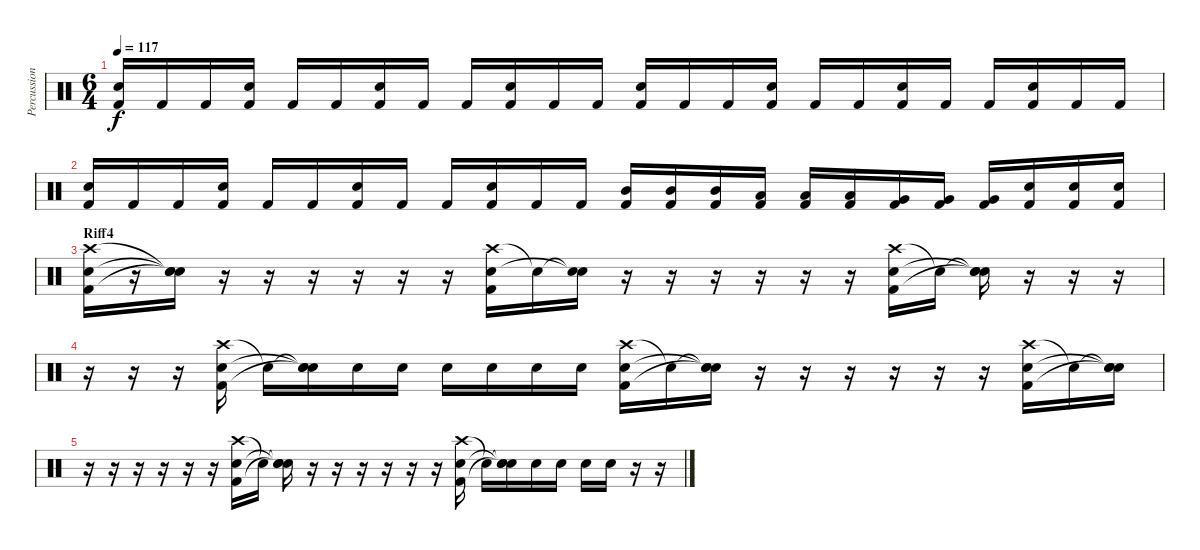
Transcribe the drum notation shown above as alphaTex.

\track ("Percussions" "Percussion") {instrument percussion}
\staff {score}
\articulation defaults
\ts (6 4)
\tempo 117
\clef neutral
\ks c
("Electric Snare (hit)" "Kick (hit) 2").16{dy f} "Kick (hit) 2".16 "Kick (hit) 2".16 ("Electric Snare (hit)" "Kick (hit) 2").16 "Kick (hit) 2".16 "Kick (hit) 2".16 ("Electric Snare (hit)" "Kick (hit) 2").16 "Kick (hit) 2".16 "Kick (hit) 2".16 ("Electric Snare (hit)" "Kick (hit) 2").16 "Kick (hit) 2".16 "Kick (hit) 2".16 ("Electric Snare (hit)" "Kick (hit) 2").16 "Kick (hit) 2".16 "Kick (hit) 2".16 ("Electric Snare (hit)" "Kick (hit) 2").16 "Kick (hit) 2".16 "Kick (hit) 2".16 ("Electric Snare (hit)" "Kick (hit) 2").16 "Kick (hit) 2".16 "Kick (hit) 2".16 ("Electric Snare (hit)" "Kick (hit) 2").16 "Kick (hit) 2".16 "Kick (hit) 2".16 |
("Electric Snare (hit)" "Kick (hit) 2").16 "Kick (hit) 2".16 "Kick (hit) 2".16 ("Electric Snare (hit)" "Kick (hit) 2").16 "Kick (hit) 2".16 "Kick (hit) 2".16 ("Electric Snare (hit)" "Kick (hit) 2").16 "Kick (hit) 2".16 "Kick (hit) 2".16 ("Electric Snare (hit)" "Kick (hit) 2").16 "Kick (hit) 2".16 "Kick (hit) 2".16 ("Mid Tom (hit)" "Kick (hit) 2").16 ("Mid Tom (hit)" "Kick (hit) 2").16 ("Mid Tom (hit)" "Kick (hit) 2").16 ("Low Tom (hit)" "Kick (hit) 2").16 ("Low Tom (hit)" "Kick (hit) 2").16 ("Low Tom (hit)" "Kick (hit) 2").16 ("Very Low Tom (hit)" "Kick (hit) 2").16 ("Very Low Tom (hit)" "Kick (hit) 2").16 ("Very Low Tom (hit)" "Kick (hit) 2").16 ("Snare (hit) 2" "Kick (hit) 2").16 ("Snare (hit) 2" "Kick (hit) 2").16 ("Snare (hit) 2" "Kick (hit) 2").16 |
\section ("" "Riff4")
("Crash high (hit)" "Electric Snare (hit)" "Kick (hit) 2").16 r.16 ("Snare (hit)"{t} "Snare (hit)"{t} "Snare (hit)"{t}).16 r.16 r.16 r.16 r.16 r.16 r.16 ("Crash high (hit)" "Electric Snare (hit)" "Kick (hit) 2").16 "Snare (hit)"{t}.16 ("Snare (hit)"{t} "Snare (hit)"{t}).16 r.16 r.16 r.16 r.16 r.16 r.16 ("Crash high (hit)" "Electric Snare (hit)" "Kick (hit) 2").16 "Snare (hit)"{t}.16 ("Snare (hit)"{t} "Snare (hit)"{t} "Snare (hit)"{t}).16 r.16 r.16 r.16 |
r.16 r.16 r.16 ("Crash high (hit)" "Electric Snare (hit)" "Kick (hit) 2").16 "Snare (hit)"{t}.16 ("Snare (hit)"{t} "Snare (hit)"{t} "Snare (hit)"{t}).16 "Electric Snare (hit)".16 "Electric Snare (hit)".16 "Electric Snare (hit)".16 "Electric Snare (hit)".16 "Electric Snare (hit)".16 "Electric Snare (hit)".16 ("Crash high (hit)" "Electric Snare (hit)" "Kick (hit) 2").16 "Snare (hit)"{t}.16 ("Snare (hit)"{t} "Snare (hit)"{t} "Snare (hit)"{t}).16 r.16 r.16 r.16 r.16 r.16 r.16 ("Crash high (hit)" "Electric Snare (hit)" "Kick (hit) 2").16 "Snare (hit)"{t}.16 ("Snare (hit)"{t} "Snare (hit)"{t} "Snare (hit)"{t}).16 |
r.16 r.16 r.16 r.16 r.16 r.16 ("Crash high (hit)" "Electric Snare (hit)" "Kick (hit) 2").16 "Snare (hit)"{t}.16 ("Snare (hit)"{t} "Snare (hit)"{t} "Snare (hit)"{t}).16 r.16 r.16 r.16 r.16 r.16 r.16 ("Crash high (hit)" "Electric Snare (hit)" "Kick (hit) 2").16 "Snare (hit)"{t}.16 ("Snare (hit)"{t} "Snare (hit)"{t} "Snare (hit)"{t}).16 "Electric Snare (hit)".16 "Electric Snare (hit)".16 "Electric Snare (hit)".16 "Electric Snare (hit)".16 r.16 r.16
